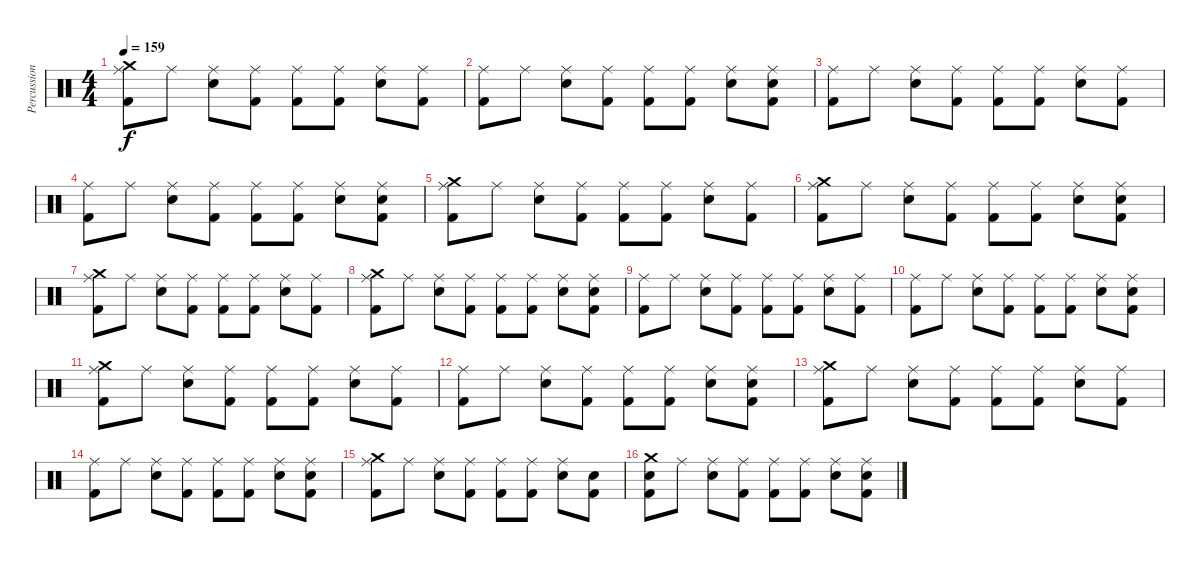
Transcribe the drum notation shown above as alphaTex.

\track ("Percussion" "Percussion") {instrument percussion}
\staff {score}
\articulation defaults
\ts (4 4)
\tempo 159
\clef neutral
\ks c
("Crash medium (hit)" "Kick (hit) 2" "Ride (middle)").8{dy f} "Ride (middle)".8 ("Electric Snare (hit)" "Ride (middle)").8 ("Kick (hit) 2" "Ride (middle)").8 ("Kick (hit) 2" "Ride (middle)").8 ("Kick (hit) 2" "Ride (middle)").8 ("Electric Snare (hit)" "Ride (middle)").8 ("Kick (hit) 2" "Ride (middle)").8 |
("Kick (hit) 2" "Ride (middle)").8 "Ride (middle)".8 ("Electric Snare (hit)" "Ride (middle)").8 ("Kick (hit) 2" "Ride (middle)").8 ("Kick (hit) 2" "Ride (middle)").8 ("Kick (hit) 2" "Ride (middle)").8 ("Electric Snare (hit)" "Ride (middle)").8 ("Kick (hit) 2" "Electric Snare (hit)" "Ride (middle)").8 |
("Kick (hit) 2" "Ride (middle)").8 "Ride (middle)".8 ("Electric Snare (hit)" "Ride (middle)").8 ("Kick (hit) 2" "Ride (middle)").8 ("Kick (hit) 2" "Ride (middle)").8 ("Kick (hit) 2" "Ride (middle)").8 ("Electric Snare (hit)" "Ride (middle)").8 ("Kick (hit) 2" "Ride (middle)").8 |
("Kick (hit) 2" "Ride (middle)").8 "Ride (middle)".8 ("Electric Snare (hit)" "Ride (middle)").8 ("Kick (hit) 2" "Ride (middle)").8 ("Kick (hit) 2" "Ride (middle)").8 ("Kick (hit) 2" "Ride (middle)").8 ("Electric Snare (hit)" "Ride (middle)").8 ("Kick (hit) 2" "Electric Snare (hit)" "Ride (middle)").8 |
("Crash medium (hit)" "Kick (hit) 2" "Ride (middle)").8 "Ride (middle)".8 ("Electric Snare (hit)" "Ride (middle)").8 ("Kick (hit) 2" "Ride (middle)").8 ("Kick (hit) 2" "Ride (middle)").8 ("Kick (hit) 2" "Ride (middle)").8 ("Electric Snare (hit)" "Ride (middle)").8 ("Kick (hit) 2" "Ride (middle)").8 |
("Crash medium (hit)" "Kick (hit) 2" "Ride (middle)").8 "Ride (middle)".8 ("Electric Snare (hit)" "Ride (middle)").8 ("Kick (hit) 2" "Ride (middle)").8 ("Kick (hit) 2" "Ride (middle)").8 ("Kick (hit) 2" "Ride (middle)").8 ("Electric Snare (hit)" "Ride (middle)").8 ("Kick (hit) 2" "Electric Snare (hit)" "Ride (middle)").8 |
("Crash medium (hit)" "Kick (hit) 2" "Ride (middle)").8 "Ride (middle)".8 ("Electric Snare (hit)" "Ride (middle)").8 ("Kick (hit) 2" "Ride (middle)").8 ("Kick (hit) 2" "Ride (middle)").8 ("Kick (hit) 2" "Ride (middle)").8 ("Electric Snare (hit)" "Ride (middle)").8 ("Kick (hit) 2" "Ride (middle)").8 |
("Crash medium (hit)" "Kick (hit) 2" "Ride (middle)").8 "Ride (middle)".8 ("Electric Snare (hit)" "Ride (middle)").8 ("Kick (hit) 2" "Ride (middle)").8 ("Kick (hit) 2" "Ride (middle)").8 ("Kick (hit) 2" "Ride (middle)").8 ("Electric Snare (hit)" "Ride (middle)").8 ("Kick (hit) 2" "Electric Snare (hit)" "Ride (middle)").8 |
("Kick (hit) 2" "Ride (middle)").8 "Ride (middle)".8 ("Electric Snare (hit)" "Ride (middle)").8 ("Kick (hit) 2" "Ride (middle)").8 ("Kick (hit) 2" "Ride (middle)").8 ("Kick (hit) 2" "Ride (middle)").8 ("Electric Snare (hit)" "Ride (middle)").8 ("Kick (hit) 2" "Ride (middle)").8 |
("Kick (hit) 2" "Ride (middle)").8 "Ride (middle)".8 ("Electric Snare (hit)" "Ride (middle)").8 ("Kick (hit) 2" "Ride (middle)").8 ("Kick (hit) 2" "Ride (middle)").8 ("Kick (hit) 2" "Ride (middle)").8 ("Electric Snare (hit)" "Ride (middle)").8 ("Kick (hit) 2" "Electric Snare (hit)" "Ride (middle)").8 |
("Crash medium (hit)" "Kick (hit) 2" "Ride (middle)").8 "Ride (middle)".8 ("Electric Snare (hit)" "Ride (middle)").8 ("Kick (hit) 2" "Ride (middle)").8 ("Kick (hit) 2" "Ride (middle)").8 ("Kick (hit) 2" "Ride (middle)").8 ("Electric Snare (hit)" "Ride (middle)").8 ("Kick (hit) 2" "Ride (middle)").8 |
("Kick (hit) 2" "Ride (middle)").8 "Ride (middle)".8 ("Electric Snare (hit)" "Ride (middle)").8 ("Kick (hit) 2" "Ride (middle)").8 ("Kick (hit) 2" "Ride (middle)").8 ("Kick (hit) 2" "Ride (middle)").8 ("Electric Snare (hit)" "Ride (middle)").8 ("Kick (hit) 2" "Electric Snare (hit)" "Ride (middle)").8 |
("Crash medium (hit)" "Kick (hit) 2" "Ride (middle)").8 "Ride (middle)".8 ("Electric Snare (hit)" "Ride (middle)").8 ("Kick (hit) 2" "Ride (middle)").8 ("Kick (hit) 2" "Ride (middle)").8 ("Kick (hit) 2" "Ride (middle)").8 ("Electric Snare (hit)" "Ride (middle)").8 ("Kick (hit) 2" "Ride (middle)").8 |
("Kick (hit) 2" "Ride (middle)").8 "Ride (middle)".8 ("Electric Snare (hit)" "Ride (middle)").8 ("Kick (hit) 2" "Ride (middle)").8 ("Kick (hit) 2" "Ride (middle)").8 ("Kick (hit) 2" "Ride (middle)").8 ("Electric Snare (hit)" "Ride (middle)").8 ("Kick (hit) 2" "Electric Snare (hit)" "Ride (middle)").8 |
("Crash medium (hit)" "Kick (hit) 2" "Ride (middle)").8 "Ride (middle)".8 ("Electric Snare (hit)" "Ride (middle)").8 ("Kick (hit) 2" "Ride (middle)").8 ("Kick (hit) 2" "Ride (middle)").8 ("Kick (hit) 2" "Ride (middle)").8 ("Electric Snare (hit)" "Ride (middle)").8 ("Kick (hit) 2" "Snare (hit)").8 |
("Crash medium (hit)" "Kick (hit) 2" "Snare (hit)").8 "Ride (middle)".8 ("Electric Snare (hit)" "Ride (middle)").8 ("Kick (hit) 2" "Ride (middle)").8 ("Kick (hit) 2" "Ride (middle)").8 ("Kick (hit) 2" "Ride (middle)").8 ("Electric Snare (hit)" "Ride (middle)").8 ("Kick (hit) 2" "Electric Snare (hit)" "Ride (middle)").8
